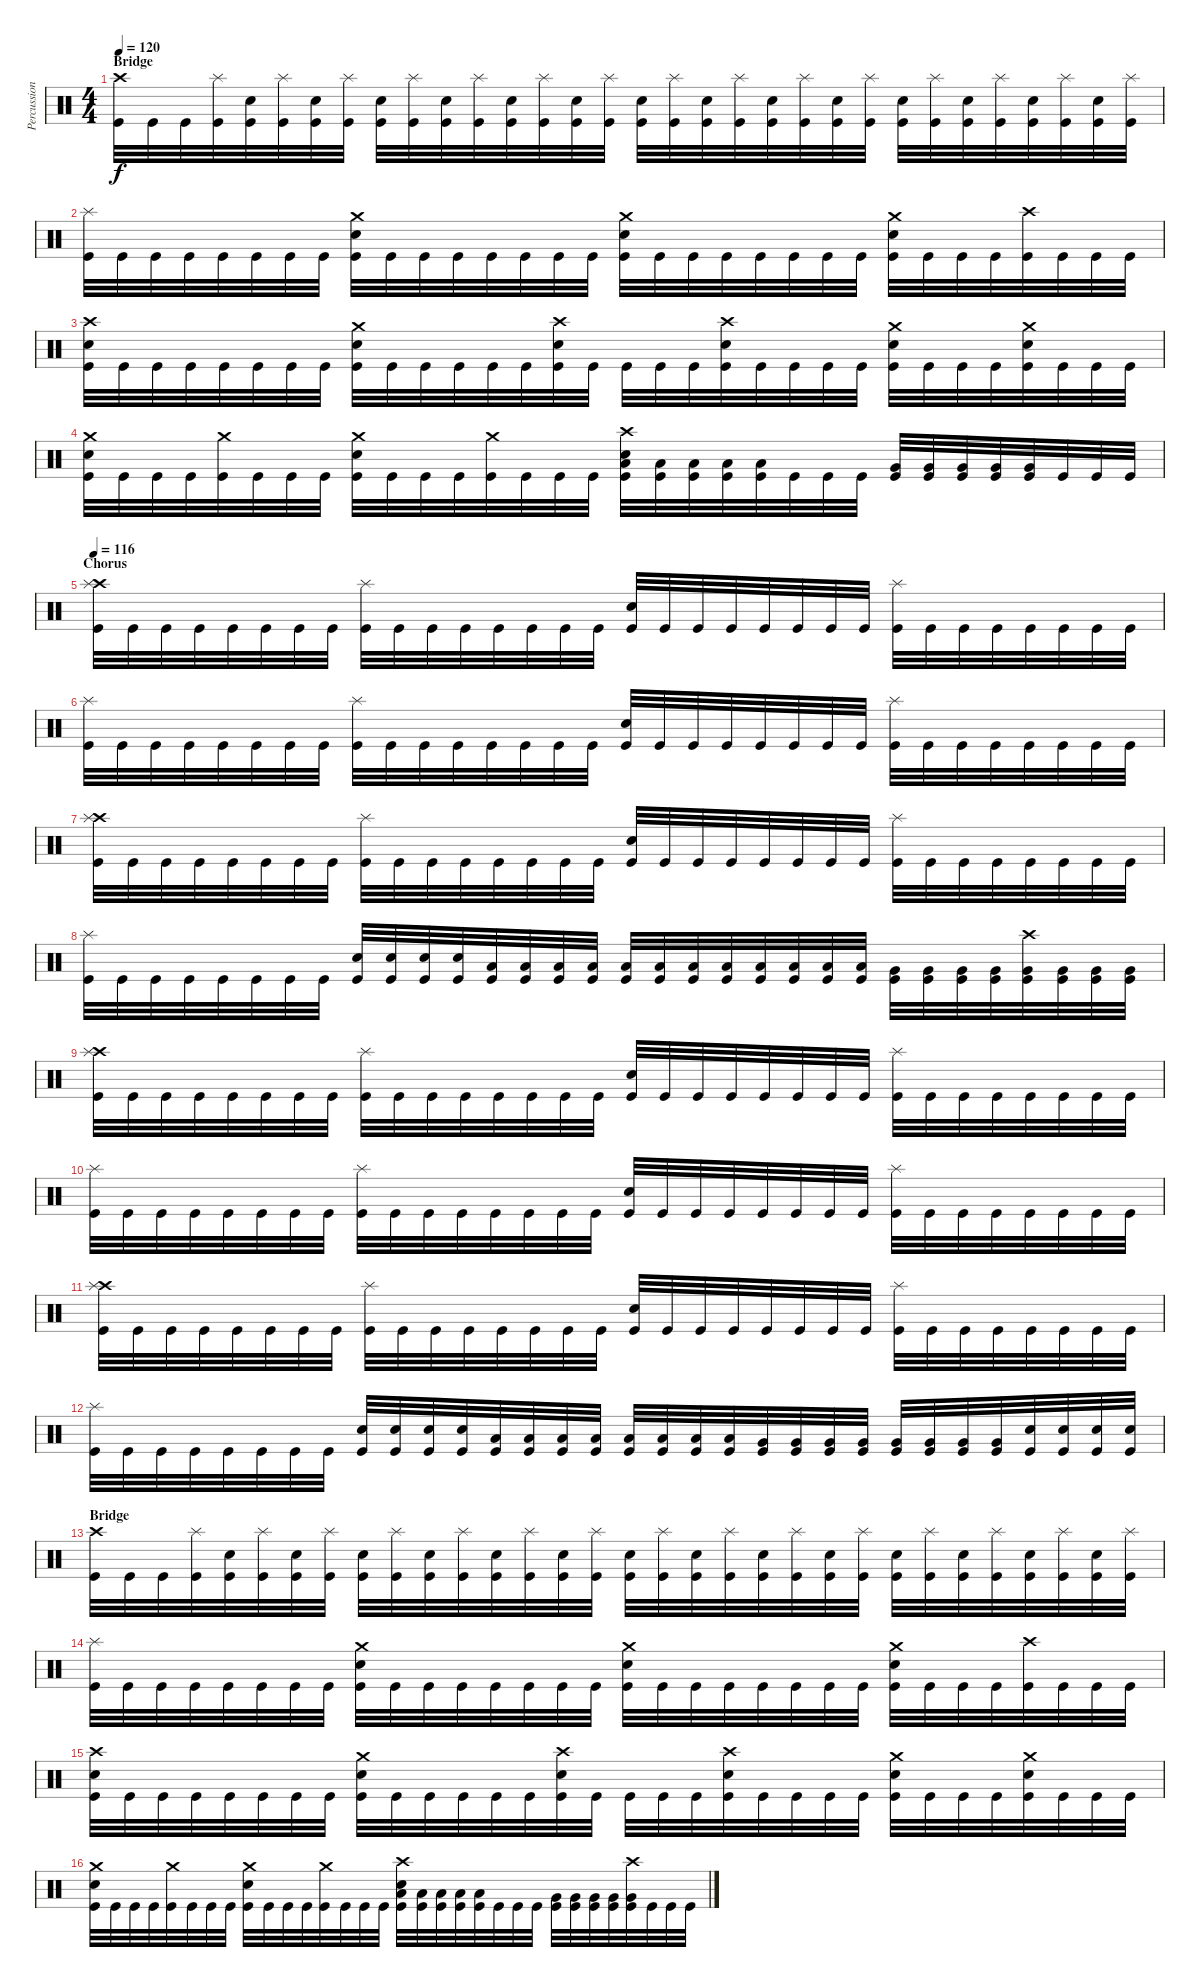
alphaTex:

\track ("Percussion" "Percussion") {instrument percussion}
\staff {score}
\articulation defaults
\ts (4 4)
\section ("" "Bridge")
\tempo 120
\clef neutral
\ks c
("Crash high (hit)" "Kick (hit)").32{dy f} "Kick (hit)".32 "Kick (hit)".32 ("Splash (hit)" "Kick (hit)").32 ("Electric Snare (hit)" "Kick (hit)").32 ("Splash (hit)" "Kick (hit)").32 ("Electric Snare (hit)" "Kick (hit)").32 ("Splash (hit)" "Kick (hit)").32 ("Electric Snare (hit)" "Kick (hit)").32 ("Splash (hit)" "Kick (hit)").32 ("Electric Snare (hit)" "Kick (hit)").32 ("Splash (hit)" "Kick (hit)").32 ("Electric Snare (hit)" "Kick (hit)").32 ("Splash (hit)" "Kick (hit)").32 ("Electric Snare (hit)" "Kick (hit)").32 ("Splash (hit)" "Kick (hit)").32 ("Electric Snare (hit)" "Kick (hit)").32 ("Splash (hit)" "Kick (hit)").32 ("Electric Snare (hit)" "Kick (hit)").32 ("Splash (hit)" "Kick (hit)").32 ("Electric Snare (hit)" "Kick (hit)").32 ("Splash (hit)" "Kick (hit)").32 ("Electric Snare (hit)" "Kick (hit)").32 ("Splash (hit)" "Kick (hit)").32 ("Electric Snare (hit)" "Kick (hit)").32 ("Splash (hit)" "Kick (hit)").32 ("Electric Snare (hit)" "Kick (hit)").32 ("Splash (hit)" "Kick (hit)").32 ("Electric Snare (hit)" "Kick (hit)").32 ("Splash (hit)" "Kick (hit)").32 ("Electric Snare (hit)" "Kick (hit)").32 ("Splash (hit)" "Kick (hit)").32 |
("Splash (hit)" "Kick (hit)").32 "Kick (hit)".32 "Kick (hit)".32 "Kick (hit)".32 "Kick (hit)".32 "Kick (hit)".32 "Kick (hit)".32 "Kick (hit)".32 ("Crash medium (hit)" "Electric Snare (hit)" "Kick (hit)").32 "Kick (hit)".32 "Kick (hit)".32 "Kick (hit)".32 "Kick (hit)".32 "Kick (hit)".32 "Kick (hit)".32 "Kick (hit)".32 ("Crash medium (hit)" "Electric Snare (hit)" "Kick (hit)").32 "Kick (hit)".32 "Kick (hit)".32 "Kick (hit)".32 "Kick (hit)".32 "Kick (hit)".32 "Kick (hit)".32 "Kick (hit)".32 ("Crash medium (hit)" "Electric Snare (hit)" "Kick (hit)").32 "Kick (hit)".32 "Kick (hit)".32 "Kick (hit)".32 ("Crash high (hit)" "Kick (hit)").32 "Kick (hit)".32 "Kick (hit)".32 "Kick (hit)".32 |
("Crash high (hit)" "Electric Snare (hit)" "Kick (hit)").32 "Kick (hit)".32 "Kick (hit)".32 "Kick (hit)".32 "Kick (hit)".32 "Kick (hit)".32 "Kick (hit)".32 "Kick (hit)".32 ("Crash medium (hit)" "Electric Snare (hit)" "Kick (hit)").32 "Kick (hit)".32 "Kick (hit)".32 "Kick (hit)".32 "Kick (hit)".32 "Kick (hit)".32 ("Crash high (hit)" "Electric Snare (hit)" "Kick (hit)").32 "Kick (hit)".32 "Kick (hit)".32 "Kick (hit)".32 "Kick (hit)".32 ("Crash high (hit)" "Electric Snare (hit)" "Kick (hit)").32 "Kick (hit)".32 "Kick (hit)".32 "Kick (hit)".32 "Kick (hit)".32 ("Crash medium (hit)" "Electric Snare (hit)" "Kick (hit)").32 "Kick (hit)".32 "Kick (hit)".32 "Kick (hit)".32 ("Crash medium (hit)" "Electric Snare (hit)" "Kick (hit)").32 "Kick (hit)".32 "Kick (hit)".32 "Kick (hit)".32 |
("Crash medium (hit)" "Electric Snare (hit)" "Kick (hit)").32 "Kick (hit)".32 "Kick (hit)".32 "Kick (hit)".32 ("Crash medium (hit)" "Kick (hit)").32 "Kick (hit)".32 "Kick (hit)".32 "Kick (hit)".32 ("Crash medium (hit)" "Electric Snare (hit)" "Kick (hit)").32 "Kick (hit)".32 "Kick (hit)".32 "Kick (hit)".32 ("Crash medium (hit)" "Kick (hit)").32 "Kick (hit)".32 "Kick (hit)".32 "Kick (hit)".32 ("Crash high (hit)" "Low Tom (hit)" "Electric Snare (hit)" "Kick (hit)").32 ("Low Tom (hit)" "Kick (hit)").32 ("Low Tom (hit)" "Kick (hit)").32 ("Low Tom (hit)" "Kick (hit)").32 ("Low Tom (hit)" "Kick (hit)").32 "Kick (hit)".32 "Kick (hit)".32 "Kick (hit)".32 ("Very Low Tom (hit)" "Kick (hit)").32 ("Very Low Tom (hit)" "Kick (hit)").32 ("Very Low Tom (hit)" "Kick (hit)").32 ("Very Low Tom (hit)" "Kick (hit)").32 ("Very Low Tom (hit)" "Kick (hit)").32 "Kick (hit)".32 "Kick (hit)".32 "Kick (hit)".32 |
\section ("" "Chorus")
\tempo 116
("Crash high (hit)" "Splash (hit)" "Kick (hit)").32 "Kick (hit)".32 "Kick (hit)".32 "Kick (hit)".32 "Kick (hit)".32 "Kick (hit)".32 "Kick (hit)".32 "Kick (hit)".32 ("Splash (hit)" "Kick (hit)").32 "Kick (hit)".32 "Kick (hit)".32 "Kick (hit)".32 "Kick (hit)".32 "Kick (hit)".32 "Kick (hit)".32 "Kick (hit)".32 ("Electric Snare (hit)" "Kick (hit)").32 "Kick (hit)".32 "Kick (hit)".32 "Kick (hit)".32 "Kick (hit)".32 "Kick (hit)".32 "Kick (hit)".32 "Kick (hit)".32 ("Splash (hit)" "Kick (hit)").32 "Kick (hit)".32 "Kick (hit)".32 "Kick (hit)".32 "Kick (hit)".32 "Kick (hit)".32 "Kick (hit)".32 "Kick (hit)".32 |
("Splash (hit)" "Kick (hit)").32 "Kick (hit)".32 "Kick (hit)".32 "Kick (hit)".32 "Kick (hit)".32 "Kick (hit)".32 "Kick (hit)".32 "Kick (hit)".32 ("Splash (hit)" "Kick (hit)").32 "Kick (hit)".32 "Kick (hit)".32 "Kick (hit)".32 "Kick (hit)".32 "Kick (hit)".32 "Kick (hit)".32 "Kick (hit)".32 ("Electric Snare (hit)" "Kick (hit)").32 "Kick (hit)".32 "Kick (hit)".32 "Kick (hit)".32 "Kick (hit)".32 "Kick (hit)".32 "Kick (hit)".32 "Kick (hit)".32 ("Splash (hit)" "Kick (hit)").32 "Kick (hit)".32 "Kick (hit)".32 "Kick (hit)".32 "Kick (hit)".32 "Kick (hit)".32 "Kick (hit)".32 "Kick (hit)".32 |
("Crash high (hit)" "Splash (hit)" "Kick (hit)").32 "Kick (hit)".32 "Kick (hit)".32 "Kick (hit)".32 "Kick (hit)".32 "Kick (hit)".32 "Kick (hit)".32 "Kick (hit)".32 ("Splash (hit)" "Kick (hit)").32 "Kick (hit)".32 "Kick (hit)".32 "Kick (hit)".32 "Kick (hit)".32 "Kick (hit)".32 "Kick (hit)".32 "Kick (hit)".32 ("Electric Snare (hit)" "Kick (hit)").32 "Kick (hit)".32 "Kick (hit)".32 "Kick (hit)".32 "Kick (hit)".32 "Kick (hit)".32 "Kick (hit)".32 "Kick (hit)".32 ("Splash (hit)" "Kick (hit)").32 "Kick (hit)".32 "Kick (hit)".32 "Kick (hit)".32 "Kick (hit)".32 "Kick (hit)".32 "Kick (hit)".32 "Kick (hit)".32 |
("Splash (hit)" "Kick (hit)").32 "Kick (hit)".32 "Kick (hit)".32 "Kick (hit)".32 "Kick (hit)".32 "Kick (hit)".32 "Kick (hit)".32 "Kick (hit)".32 ("Electric Snare (hit)" "Kick (hit)").32 ("Electric Snare (hit)" "Kick (hit)").32 ("Electric Snare (hit)" "Kick (hit)").32 ("Electric Snare (hit)" "Kick (hit)").32 ("Low Tom (hit)" "Kick (hit)").32 ("Low Tom (hit)" "Kick (hit)").32 ("Low Tom (hit)" "Kick (hit)").32 ("Low Tom (hit)" "Kick (hit)").32 ("Low Tom (hit)" "Kick (hit)").32 ("Low Tom (hit)" "Kick (hit)").32 ("Low Tom (hit)" "Kick (hit)").32 ("Low Tom (hit)" "Kick (hit)").32 ("Low Tom (hit)" "Kick (hit)").32 ("Low Tom (hit)" "Kick (hit)").32 ("Low Tom (hit)" "Kick (hit)").32 ("Low Tom (hit)" "Kick (hit)").32 ("Very Low Tom (hit)" "Kick (hit)").32 ("Very Low Tom (hit)" "Kick (hit)").32 ("Very Low Tom (hit)" "Kick (hit)").32 ("Very Low Tom (hit)" "Kick (hit)").32 ("Crash high (hit)" "Very Low Tom (hit)" "Kick (hit)").32 ("Very Low Tom (hit)" "Kick (hit)").32 ("Very Low Tom (hit)" "Kick (hit)").32 ("Very Low Tom (hit)" "Kick (hit)").32 |
("Crash high (hit)" "Splash (hit)" "Kick (hit)").32 "Kick (hit)".32 "Kick (hit)".32 "Kick (hit)".32 "Kick (hit)".32 "Kick (hit)".32 "Kick (hit)".32 "Kick (hit)".32 ("Splash (hit)" "Kick (hit)").32 "Kick (hit)".32 "Kick (hit)".32 "Kick (hit)".32 "Kick (hit)".32 "Kick (hit)".32 "Kick (hit)".32 "Kick (hit)".32 ("Electric Snare (hit)" "Kick (hit)").32 "Kick (hit)".32 "Kick (hit)".32 "Kick (hit)".32 "Kick (hit)".32 "Kick (hit)".32 "Kick (hit)".32 "Kick (hit)".32 ("Splash (hit)" "Kick (hit)").32 "Kick (hit)".32 "Kick (hit)".32 "Kick (hit)".32 "Kick (hit)".32 "Kick (hit)".32 "Kick (hit)".32 "Kick (hit)".32 |
("Splash (hit)" "Kick (hit)").32 "Kick (hit)".32 "Kick (hit)".32 "Kick (hit)".32 "Kick (hit)".32 "Kick (hit)".32 "Kick (hit)".32 "Kick (hit)".32 ("Splash (hit)" "Kick (hit)").32 "Kick (hit)".32 "Kick (hit)".32 "Kick (hit)".32 "Kick (hit)".32 "Kick (hit)".32 "Kick (hit)".32 "Kick (hit)".32 ("Electric Snare (hit)" "Kick (hit)").32 "Kick (hit)".32 "Kick (hit)".32 "Kick (hit)".32 "Kick (hit)".32 "Kick (hit)".32 "Kick (hit)".32 "Kick (hit)".32 ("Splash (hit)" "Kick (hit)").32 "Kick (hit)".32 "Kick (hit)".32 "Kick (hit)".32 "Kick (hit)".32 "Kick (hit)".32 "Kick (hit)".32 "Kick (hit)".32 |
("Crash high (hit)" "Splash (hit)" "Kick (hit)").32 "Kick (hit)".32 "Kick (hit)".32 "Kick (hit)".32 "Kick (hit)".32 "Kick (hit)".32 "Kick (hit)".32 "Kick (hit)".32 ("Splash (hit)" "Kick (hit)").32 "Kick (hit)".32 "Kick (hit)".32 "Kick (hit)".32 "Kick (hit)".32 "Kick (hit)".32 "Kick (hit)".32 "Kick (hit)".32 ("Electric Snare (hit)" "Kick (hit)").32 "Kick (hit)".32 "Kick (hit)".32 "Kick (hit)".32 "Kick (hit)".32 "Kick (hit)".32 "Kick (hit)".32 "Kick (hit)".32 ("Splash (hit)" "Kick (hit)").32 "Kick (hit)".32 "Kick (hit)".32 "Kick (hit)".32 "Kick (hit)".32 "Kick (hit)".32 "Kick (hit)".32 "Kick (hit)".32 |
("Splash (hit)" "Kick (hit)").32 "Kick (hit)".32 "Kick (hit)".32 "Kick (hit)".32 "Kick (hit)".32 "Kick (hit)".32 "Kick (hit)".32 "Kick (hit)".32 ("Electric Snare (hit)" "Kick (hit)").32 ("Electric Snare (hit)" "Kick (hit)").32 ("Electric Snare (hit)" "Kick (hit)").32 ("Electric Snare (hit)" "Kick (hit)").32 ("Low Tom (hit)" "Kick (hit)").32 ("Low Tom (hit)" "Kick (hit)").32 ("Low Tom (hit)" "Kick (hit)").32 ("Low Tom (hit)" "Kick (hit)").32 ("Low Tom (hit)" "Kick (hit)").32 ("Low Tom (hit)" "Kick (hit)").32 ("Low Tom (hit)" "Kick (hit)").32 ("Low Tom (hit)" "Kick (hit)").32 ("Very Low Tom (hit)" "Kick (hit)").32 ("Very Low Tom (hit)" "Kick (hit)").32 ("Very Low Tom (hit)" "Kick (hit)").32 ("Very Low Tom (hit)" "Kick (hit)").32 ("Very Low Tom (hit)" "Kick (hit)").32 ("Very Low Tom (hit)" "Kick (hit)").32 ("Very Low Tom (hit)" "Kick (hit)").32 ("Very Low Tom (hit)" "Kick (hit)").32 ("Electric Snare (hit)" "Kick (hit)").32 ("Electric Snare (hit)" "Kick (hit)").32 ("Electric Snare (hit)" "Kick (hit)").32 ("Electric Snare (hit)" "Kick (hit)").32 |
\section ("" "Bridge")
("Crash high (hit)" "Kick (hit)").32 "Kick (hit)".32 "Kick (hit)".32 ("Splash (hit)" "Kick (hit)").32 ("Electric Snare (hit)" "Kick (hit)").32 ("Splash (hit)" "Kick (hit)").32 ("Electric Snare (hit)" "Kick (hit)").32 ("Splash (hit)" "Kick (hit)").32 ("Electric Snare (hit)" "Kick (hit)").32 ("Splash (hit)" "Kick (hit)").32 ("Electric Snare (hit)" "Kick (hit)").32 ("Splash (hit)" "Kick (hit)").32 ("Electric Snare (hit)" "Kick (hit)").32 ("Splash (hit)" "Kick (hit)").32 ("Electric Snare (hit)" "Kick (hit)").32 ("Splash (hit)" "Kick (hit)").32 ("Electric Snare (hit)" "Kick (hit)").32 ("Splash (hit)" "Kick (hit)").32 ("Electric Snare (hit)" "Kick (hit)").32 ("Splash (hit)" "Kick (hit)").32 ("Electric Snare (hit)" "Kick (hit)").32 ("Splash (hit)" "Kick (hit)").32 ("Electric Snare (hit)" "Kick (hit)").32 ("Splash (hit)" "Kick (hit)").32 ("Electric Snare (hit)" "Kick (hit)").32 ("Splash (hit)" "Kick (hit)").32 ("Electric Snare (hit)" "Kick (hit)").32 ("Splash (hit)" "Kick (hit)").32 ("Electric Snare (hit)" "Kick (hit)").32 ("Splash (hit)" "Kick (hit)").32 ("Electric Snare (hit)" "Kick (hit)").32 ("Splash (hit)" "Kick (hit)").32 |
("Splash (hit)" "Kick (hit)").32 "Kick (hit)".32 "Kick (hit)".32 "Kick (hit)".32 "Kick (hit)".32 "Kick (hit)".32 "Kick (hit)".32 "Kick (hit)".32 ("Crash medium (hit)" "Electric Snare (hit)" "Kick (hit)").32 "Kick (hit)".32 "Kick (hit)".32 "Kick (hit)".32 "Kick (hit)".32 "Kick (hit)".32 "Kick (hit)".32 "Kick (hit)".32 ("Crash medium (hit)" "Electric Snare (hit)" "Kick (hit)").32 "Kick (hit)".32 "Kick (hit)".32 "Kick (hit)".32 "Kick (hit)".32 "Kick (hit)".32 "Kick (hit)".32 "Kick (hit)".32 ("Crash medium (hit)" "Electric Snare (hit)" "Kick (hit)").32 "Kick (hit)".32 "Kick (hit)".32 "Kick (hit)".32 ("Crash high (hit)" "Kick (hit)").32 "Kick (hit)".32 "Kick (hit)".32 "Kick (hit)".32 |
("Crash high (hit)" "Electric Snare (hit)" "Kick (hit)").32 "Kick (hit)".32 "Kick (hit)".32 "Kick (hit)".32 "Kick (hit)".32 "Kick (hit)".32 "Kick (hit)".32 "Kick (hit)".32 ("Crash medium (hit)" "Electric Snare (hit)" "Kick (hit)").32 "Kick (hit)".32 "Kick (hit)".32 "Kick (hit)".32 "Kick (hit)".32 "Kick (hit)".32 ("Crash high (hit)" "Electric Snare (hit)" "Kick (hit)").32 "Kick (hit)".32 "Kick (hit)".32 "Kick (hit)".32 "Kick (hit)".32 ("Crash high (hit)" "Electric Snare (hit)" "Kick (hit)").32 "Kick (hit)".32 "Kick (hit)".32 "Kick (hit)".32 "Kick (hit)".32 ("Crash medium (hit)" "Electric Snare (hit)" "Kick (hit)").32 "Kick (hit)".32 "Kick (hit)".32 "Kick (hit)".32 ("Crash medium (hit)" "Electric Snare (hit)" "Kick (hit)").32 "Kick (hit)".32 "Kick (hit)".32 "Kick (hit)".32 |
("Crash medium (hit)" "Electric Snare (hit)" "Kick (hit)").32 "Kick (hit)".32 "Kick (hit)".32 "Kick (hit)".32 ("Crash medium (hit)" "Kick (hit)").32 "Kick (hit)".32 "Kick (hit)".32 "Kick (hit)".32 ("Crash medium (hit)" "Electric Snare (hit)" "Kick (hit)").32 "Kick (hit)".32 "Kick (hit)".32 "Kick (hit)".32 ("Crash medium (hit)" "Kick (hit)").32 "Kick (hit)".32 "Kick (hit)".32 "Kick (hit)".32 ("Crash high (hit)" "Low Tom (hit)" "Electric Snare (hit)" "Kick (hit)").32 ("Low Tom (hit)" "Kick (hit)").32 ("Low Tom (hit)" "Kick (hit)").32 ("Low Tom (hit)" "Kick (hit)").32 ("Low Tom (hit)" "Kick (hit)").32 "Kick (hit)".32 "Kick (hit)".32 "Kick (hit)".32 ("Very Low Tom (hit)" "Kick (hit)").32 ("Very Low Tom (hit)" "Kick (hit)").32 ("Very Low Tom (hit)" "Kick (hit)").32 ("Very Low Tom (hit)" "Kick (hit)").32 ("Crash high (hit)" "Very Low Tom (hit)" "Kick (hit)").32 "Kick (hit)".32 "Kick (hit)".32 "Kick (hit)".32
